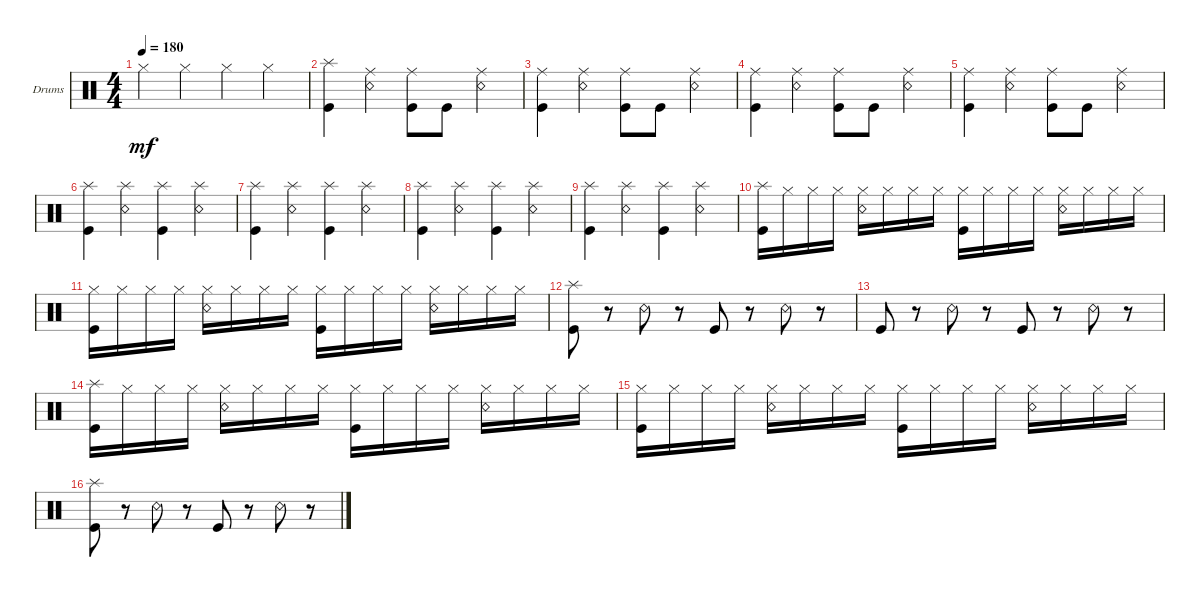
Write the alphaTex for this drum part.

\defaultSystemsLayout 4
\bracketExtendMode groupsimilarinstruments
\firstSystemTrackNameOrientation horizontal
\otherSystemsTrackNameOrientation horizontal
\track ("Drumkit" "Drums") {instrument percussion}
\staff {score}
\articulation defaults
\ts (4 4)
\tempo 180
\clef neutral
\scale
0.474178
\ks c "Hi-Hat (closed)".4{dy mf} "Hi-Hat (closed)".4 "Hi-Hat (closed)".4 "Hi-Hat (closed)".4
|
\scale
0.262911 ("Kick (hit)" "Splash (hit)").4 ("Snare (rim shot)" "Ride (middle)").4 ("Kick (hit)" "Ride (middle)").8 "Kick (hit)".8 ("Snare (rim shot)" "Ride (middle)").4 |
\scale
0.262911 ("Kick (hit)" "Ride (middle)").4 ("Snare (rim shot)" "Ride (middle)").4 ("Kick (hit)" "Ride (middle)").8 "Kick (hit)".8 ("Snare (rim shot)" "Ride (middle)").4 |
\scale
0.333333 ("Kick (hit)" "Ride (middle)").4 ("Snare (rim shot)" "Ride (middle)").4 ("Kick (hit)" "Ride (middle)").8 "Kick (hit)".8 ("Snare (rim shot)" "Ride (middle)").4 |
\scale
0.333333 ("Kick (hit)" "Ride (middle)").4 ("Snare (rim shot)" "Ride (middle)").4 ("Kick (hit)" "Ride (middle)").8 "Kick (hit)".8 ("Snare (rim shot)" "Ride (middle)").4 |
\scale
0.333333 ("Kick (hit)" "Splash (hit)").4 ("Snare (rim shot)" "Splash (hit)").4 ("Kick (hit)" "Splash (hit)").4 ("Snare (rim shot)" "Splash (hit)").4 |
\scale
0.333333 ("Kick (hit)" "Splash (hit)").4 ("Snare (rim shot)" "Splash (hit)").4 ("Kick (hit)" "Splash (hit)").4 ("Snare (rim shot)" "Splash (hit)").4 |
\scale
0.333333 ("Kick (hit)" "Splash (hit)").4 ("Snare (rim shot)" "Splash (hit)").4 ("Kick (hit)" "Splash (hit)").4 ("Snare (rim shot)" "Splash (hit)").4 |
\scale
0.333333 ("Kick (hit)" "Splash (hit)").4 ("Snare (rim shot)" "Splash (hit)").4 ("Kick (hit)" "Splash (hit)").4 ("Snare (rim shot)" "Splash (hit)").4 |
\scale
0.333333 ("Kick (hit)" "Splash (hit)").16 "Hi-Hat (closed)".16 "Hi-Hat (closed)".16 "Hi-Hat (closed)".16 ("Hi-Hat (closed)" "Snare (rim shot)").16 "Hi-Hat (closed)".16 "Hi-Hat (closed)".16 "Hi-Hat (closed)".16 ("Hi-Hat (closed)" "Kick (hit)").16 "Hi-Hat (closed)".16 "Hi-Hat (closed)".16 "Hi-Hat (closed)".16 ("Hi-Hat (closed)" "Snare (rim shot)").16 "Hi-Hat (closed)".16 "Hi-Hat (closed)".16 "Hi-Hat (closed)".16 |
\scale
0.333333 ("Kick (hit)" "Hi-Hat (closed)").16 "Hi-Hat (closed)".16 "Hi-Hat (closed)".16 "Hi-Hat (closed)".16 ("Hi-Hat (closed)" "Snare (rim shot)").16 "Hi-Hat (closed)".16 "Hi-Hat (closed)".16 "Hi-Hat (closed)".16 ("Hi-Hat (closed)" "Kick (hit)").16 "Hi-Hat (closed)".16 "Hi-Hat (closed)".16 "Hi-Hat (closed)".16 ("Hi-Hat (closed)" "Snare (rim shot)").16 "Hi-Hat (closed)".16 "Hi-Hat (closed)".16 "Hi-Hat (closed)".16 |
\scale
0.333333 ("Kick (hit)" "Splash (hit)").8 r.8 "Snare (rim shot)".8 r.8 "Kick (hit)".8 r.8 "Snare (rim shot)".8 r.8 |
\scale
0.333333 "Kick (hit)".8 r.8 "Snare (rim shot)".8 r.8 "Kick (hit)".8 r.8 "Snare (rim shot)".8 r.8 |
\scale
0.333333 ("Kick (hit)" "Splash (hit)").16 "Hi-Hat (closed)".16 "Hi-Hat (closed)".16 "Hi-Hat (closed)".16 ("Hi-Hat (closed)" "Snare (rim shot)").16 "Hi-Hat (closed)".16 "Hi-Hat (closed)".16 "Hi-Hat (closed)".16 ("Hi-Hat (closed)" "Kick (hit)").16 "Hi-Hat (closed)".16 "Hi-Hat (closed)".16 "Hi-Hat (closed)".16 ("Hi-Hat (closed)" "Snare (rim shot)").16 "Hi-Hat (closed)".16 "Hi-Hat (closed)".16 "Hi-Hat (closed)".16 |
\scale
0.333333 ("Kick (hit)" "Hi-Hat (closed)").16 "Hi-Hat (closed)".16 "Hi-Hat (closed)".16 "Hi-Hat (closed)".16 ("Hi-Hat (closed)" "Snare (rim shot)").16 "Hi-Hat (closed)".16 "Hi-Hat (closed)".16 "Hi-Hat (closed)".16 ("Hi-Hat (closed)" "Kick (hit)").16 "Hi-Hat (closed)".16 "Hi-Hat (closed)".16 "Hi-Hat (closed)".16 ("Hi-Hat (closed)" "Snare (rim shot)").16 "Hi-Hat (closed)".16 "Hi-Hat (closed)".16 "Hi-Hat (closed)".16 |
\scale
0.333333 ("Kick (hit)" "Splash (hit)").8 r.8 "Snare (rim shot)".8 r.8 "Kick (hit)".8 r.8 "Snare (rim shot)".8 r.8
